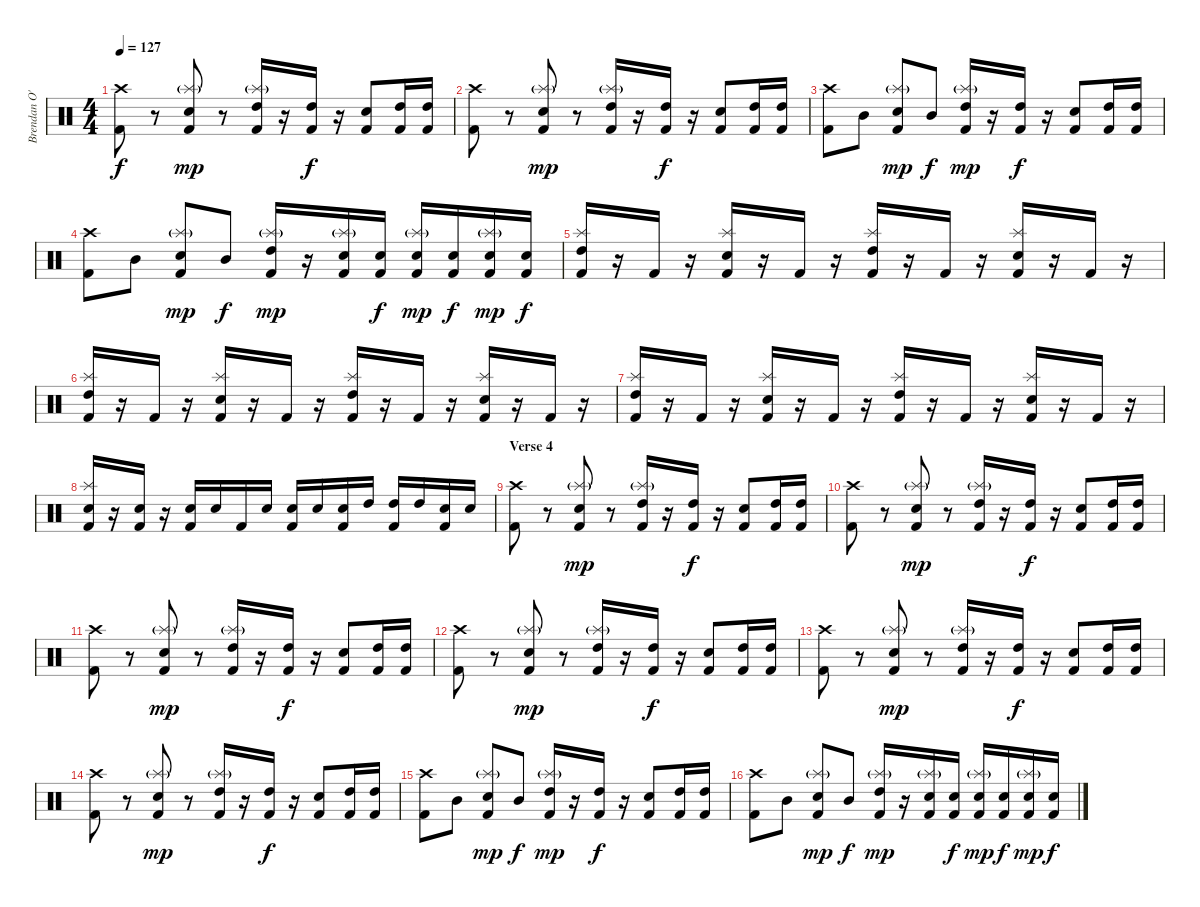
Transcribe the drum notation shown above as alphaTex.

\track ("Brendan O'Neil" "Brendan O'") {instrument percussion}
\staff {score}
\articulation defaults
\ts (4 4)
\tempo 127
\clef neutral
\ks c
("Crash high (hit)" "Kick (hit) 2").8{dy f} r.8 ("Splash (hit)"{g} "Snare (hit) 2" "Kick (hit) 2").8{dy mp} r.8 ("Splash (hit)"{g} "High Tom (hit)" "Kick (hit) 2").16 r.16 ("High Tom (hit)" "Kick (hit) 2").16{dy f} r.16 ("Snare (hit) 2" "Kick (hit) 2").8 ("High Tom (hit)" "Kick (hit) 2").16 ("High Tom (hit)" "Kick (hit) 2").16 |
("Crash high (hit)" "Kick (hit) 2").8 r.8 ("Splash (hit)"{g} "Snare (hit) 2" "Kick (hit) 2").8{dy mp} r.8 ("Splash (hit)"{g} "High Tom (hit)" "Kick (hit) 2").16 r.16 ("High Tom (hit)" "Kick (hit) 2").16{dy f} r.16 ("Snare (hit) 2" "Kick (hit) 2").8 ("High Tom (hit)" "Kick (hit) 2").16 ("High Tom (hit)" "Kick (hit) 2").16 |
("Crash high (hit)" "Kick (hit) 2").8 "Mid Tom (hit)".8 ("Splash (hit)"{g} "Snare (hit) 2" "Kick (hit) 2").8{dy mp} "Mid Tom (hit)".8{dy f} ("Splash (hit)"{g} "High Tom (hit)" "Kick (hit) 2").16{dy mp} r.16 ("High Tom (hit)" "Kick (hit) 2").16{dy f} r.16 ("Snare (hit) 2" "Kick (hit) 2").8 ("High Tom (hit)" "Kick (hit) 2").16 ("High Tom (hit)" "Kick (hit) 2").16 |
("Crash high (hit)" "Kick (hit) 2").8 "Mid Tom (hit)".8 ("Splash (hit)"{g} "Snare (hit) 2" "Kick (hit) 2").8{dy mp} "Mid Tom (hit)".8{dy f} ("Splash (hit)"{g} "High Tom (hit)" "Kick (hit) 2").16{dy mp} r.16 ("Splash (hit)"{g} "Snare (hit) 2" "Kick (hit) 2").16 ("Snare (hit) 2" "Kick (hit) 2").16{dy f} ("Splash (hit)"{g} "Snare (hit) 2" "Kick (hit) 2").16{dy mp} ("Snare (hit) 2" "Kick (hit) 2").16{dy f} ("Splash (hit)"{g} "Snare (hit) 2" "Kick (hit) 2").16{dy mp} ("Snare (hit) 2" "Kick (hit) 2").16{dy f} |
("Splash (hit)" "High Tom (hit)" "Kick (hit) 2").16 r.16 "Kick (hit) 2".16 r.16 ("Splash (hit)" "Snare (hit) 2" "Kick (hit) 2").16 r.16 "Kick (hit) 2".16 r.16 ("Splash (hit)" "High Tom (hit)" "Kick (hit) 2").16 r.16 "Kick (hit) 2".16 r.16 ("Splash (hit)" "Snare (hit) 2" "Kick (hit) 2").16 r.16 "Kick (hit) 2".16 r.16 |
("Splash (hit)" "High Tom (hit)" "Kick (hit) 2").16 r.16 "Kick (hit) 2".16 r.16 ("Splash (hit)" "Snare (hit) 2" "Kick (hit) 2").16 r.16 "Kick (hit) 2".16 r.16 ("Splash (hit)" "High Tom (hit)" "Kick (hit) 2").16 r.16 "Kick (hit) 2".16 r.16 ("Splash (hit)" "Snare (hit) 2" "Kick (hit) 2").16 r.16 "Kick (hit) 2".16 r.16 |
("Splash (hit)" "High Tom (hit)" "Kick (hit) 2").16 r.16 "Kick (hit) 2".16 r.16 ("Splash (hit)" "Snare (hit) 2" "Kick (hit) 2").16 r.16 "Kick (hit) 2".16 r.16 ("Splash (hit)" "High Tom (hit)" "Kick (hit) 2").16 r.16 "Kick (hit) 2".16 r.16 ("Splash (hit)" "Snare (hit) 2" "Kick (hit) 2").16 r.16 "Kick (hit) 2".16 r.16 |
("Splash (hit)" "Snare (hit) 2" "Kick (hit) 2").16 r.16 ("Snare (hit) 2" "Kick (hit) 2").16 r.16 ("Snare (hit) 2" "Kick (hit) 2").16 "Snare (hit) 2".16 "Kick (hit) 2".16 "Snare (hit) 2".16 ("Snare (hit) 2" "Kick (hit) 2").16 "Snare (hit) 2".16 ("Snare (hit) 2" "Kick (hit) 2").16 "High Tom (hit)".16 ("High Tom (hit)" "Kick (hit) 2").16 "High Tom (hit)".16 ("Snare (hit) 2" "Kick (hit) 2").16 "Snare (hit) 2".16 |
\section ("" "Verse 4")
("Crash high (hit)" "Kick (hit) 2").8 r.8 ("Splash (hit)"{g} "Snare (hit) 2" "Kick (hit) 2").8{dy mp} r.8 ("Splash (hit)"{g} "High Tom (hit)" "Kick (hit) 2").16 r.16 ("High Tom (hit)" "Kick (hit) 2").16{dy f} r.16 ("Snare (hit) 2" "Kick (hit) 2").8 ("High Tom (hit)" "Kick (hit) 2").16 ("High Tom (hit)" "Kick (hit) 2").16 |
("Crash high (hit)" "Kick (hit) 2").8 r.8 ("Splash (hit)"{g} "Snare (hit) 2" "Kick (hit) 2").8{dy mp} r.8 ("Splash (hit)"{g} "High Tom (hit)" "Kick (hit) 2").16 r.16 ("High Tom (hit)" "Kick (hit) 2").16{dy f} r.16 ("Snare (hit) 2" "Kick (hit) 2").8 ("High Tom (hit)" "Kick (hit) 2").16 ("High Tom (hit)" "Kick (hit) 2").16 |
("Crash high (hit)" "Kick (hit) 2").8 r.8 ("Splash (hit)"{g} "Snare (hit) 2" "Kick (hit) 2").8{dy mp} r.8 ("Splash (hit)"{g} "High Tom (hit)" "Kick (hit) 2").16 r.16 ("High Tom (hit)" "Kick (hit) 2").16{dy f} r.16 ("Snare (hit) 2" "Kick (hit) 2").8 ("High Tom (hit)" "Kick (hit) 2").16 ("High Tom (hit)" "Kick (hit) 2").16 |
("Crash high (hit)" "Kick (hit) 2").8 r.8 ("Splash (hit)"{g} "Snare (hit) 2" "Kick (hit) 2").8{dy mp} r.8 ("Splash (hit)"{g} "High Tom (hit)" "Kick (hit) 2").16 r.16 ("High Tom (hit)" "Kick (hit) 2").16{dy f} r.16 ("Snare (hit) 2" "Kick (hit) 2").8 ("High Tom (hit)" "Kick (hit) 2").16 ("High Tom (hit)" "Kick (hit) 2").16 |
("Crash high (hit)" "Kick (hit) 2").8 r.8 ("Splash (hit)"{g} "Snare (hit) 2" "Kick (hit) 2").8{dy mp} r.8 ("Splash (hit)"{g} "High Tom (hit)" "Kick (hit) 2").16 r.16 ("High Tom (hit)" "Kick (hit) 2").16{dy f} r.16 ("Snare (hit) 2" "Kick (hit) 2").8 ("High Tom (hit)" "Kick (hit) 2").16 ("High Tom (hit)" "Kick (hit) 2").16 |
("Crash high (hit)" "Kick (hit) 2").8 r.8 ("Splash (hit)"{g} "Snare (hit) 2" "Kick (hit) 2").8{dy mp} r.8 ("Splash (hit)"{g} "High Tom (hit)" "Kick (hit) 2").16 r.16 ("High Tom (hit)" "Kick (hit) 2").16{dy f} r.16 ("Snare (hit) 2" "Kick (hit) 2").8 ("High Tom (hit)" "Kick (hit) 2").16 ("High Tom (hit)" "Kick (hit) 2").16 |
("Crash high (hit)" "Kick (hit) 2").8 "Mid Tom (hit)".8 ("Splash (hit)"{g} "Snare (hit) 2" "Kick (hit) 2").8{dy mp} "Mid Tom (hit)".8{dy f} ("Splash (hit)"{g} "High Tom (hit)" "Kick (hit) 2").16{dy mp} r.16 ("High Tom (hit)" "Kick (hit) 2").16{dy f} r.16 ("Snare (hit) 2" "Kick (hit) 2").8 ("High Tom (hit)" "Kick (hit) 2").16 ("High Tom (hit)" "Kick (hit) 2").16 |
("Crash high (hit)" "Kick (hit) 2").8 "Mid Tom (hit)".8 ("Splash (hit)"{g} "Snare (hit) 2" "Kick (hit) 2").8{dy mp} "Mid Tom (hit)".8{dy f} ("Splash (hit)"{g} "High Tom (hit)" "Kick (hit) 2").16{dy mp} r.16 ("Splash (hit)"{g} "Snare (hit) 2" "Kick (hit) 2").16 ("Snare (hit) 2" "Kick (hit) 2").16{dy f} ("Splash (hit)"{g} "Snare (hit) 2" "Kick (hit) 2").16{dy mp} ("Snare (hit) 2" "Kick (hit) 2").16{dy f} ("Splash (hit)"{g} "Snare (hit) 2" "Kick (hit) 2").16{dy mp} ("Snare (hit) 2" "Kick (hit) 2").16{dy f}
